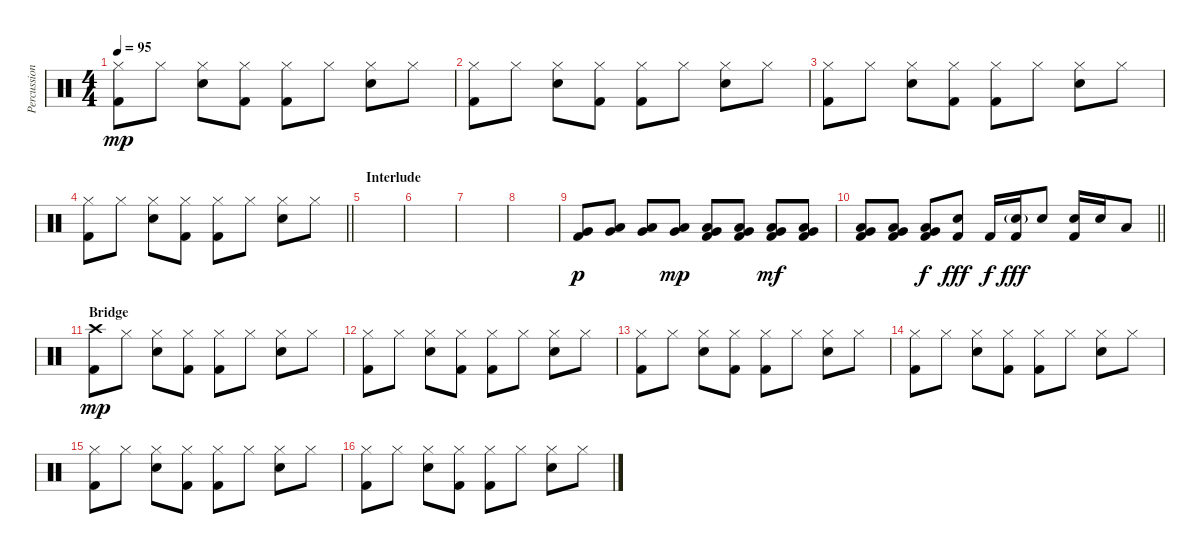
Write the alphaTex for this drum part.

\track ("Percussioni" "Percussion") {instrument percussion}
\staff {score}
\articulation defaults
\ts (4 4)
\tempo 95
\clef neutral
\ks c
("Hi-Hat (closed)" "Kick (hit) 2").8{dy mp} "Hi-Hat (closed)".8 ("Hi-Hat (closed)" "Snare (hit) 2").8 ("Hi-Hat (closed)" "Kick (hit) 2").8 ("Hi-Hat (closed)" "Kick (hit) 2").8 "Hi-Hat (closed)".8 ("Hi-Hat (closed)" "Snare (hit) 2").8 "Hi-Hat (closed)".8 |
("Hi-Hat (closed)" "Kick (hit) 2").8 "Hi-Hat (closed)".8 ("Hi-Hat (closed)" "Snare (hit) 2").8 ("Hi-Hat (closed)" "Kick (hit) 2").8 ("Hi-Hat (closed)" "Kick (hit) 2").8 "Hi-Hat (closed)".8 ("Hi-Hat (closed)" "Snare (hit) 2").8 "Hi-Hat (closed)".8 |
("Hi-Hat (closed)" "Kick (hit) 2").8 "Hi-Hat (closed)".8 ("Hi-Hat (closed)" "Snare (hit) 2").8 ("Hi-Hat (closed)" "Kick (hit) 2").8 ("Hi-Hat (closed)" "Kick (hit) 2").8 "Hi-Hat (closed)".8 ("Hi-Hat (closed)" "Snare (hit) 2").8 "Hi-Hat (closed)".8 |
\barLineRight lightlight
("Hi-Hat (closed)" "Kick (hit) 2").8 "Hi-Hat (closed)".8 ("Hi-Hat (closed)" "Snare (hit) 2").8 ("Hi-Hat (closed)" "Kick (hit) 2").8 ("Hi-Hat (closed)" "Kick (hit) 2").8 "Hi-Hat (closed)".8 ("Hi-Hat (closed)" "Snare (hit) 2").8 "Hi-Hat (closed)".8 |
\section ("" "Interlude")
|
|
|
|
("Very Low Tom (hit)" "Kick (hit) 2").8{dy p} ("Low Tom (hit)" "Very Low Tom (hit)").8 ("Low Tom (hit)" "Very Low Tom (hit)").8 ("Low Tom (hit)" "Very Low Tom (hit)").8{dy mp} ("Low Tom (hit)" "Very Low Tom (hit)" "Kick (hit) 2").8 ("Low Tom (hit)" "Very Low Tom (hit)" "Kick (hit) 2").8 ("Low Tom (hit)" "Very Low Tom (hit)" "Kick (hit) 2").8{dy mf} ("Low Tom (hit)" "Very Low Tom (hit)" "Kick (hit) 2").8 |
\barLineRight lightlight
("Low Tom (hit)" "Very Low Tom (hit)" "Kick (hit) 2").8 ("Low Tom (hit)" "Very Low Tom (hit)" "Kick (hit) 2").8 ("Low Tom (hit)" "Very Low Tom (hit)" "Kick (hit) 2").8{dy f} ("Snare (hit) 2" "Kick (hit) 2").8{dy fff} "Kick (hit) 2".16{dy f} ("Snare (hit) 2"{g} "Kick (hit) 2").16{dy fff} "Snare (hit) 2".8 ("Snare (hit) 2" "Kick (hit) 2").16 "Snare (hit) 2".16 "Low Tom (hit)".8 |
\section ("" "Bridge")
("Crash high (hit)" "Kick (hit) 2").8{dy mp} "Hi-Hat (closed)".8 ("Hi-Hat (closed)" "Snare (hit) 2").8 ("Hi-Hat (closed)" "Kick (hit) 2").8 ("Hi-Hat (closed)" "Kick (hit) 2").8 "Hi-Hat (closed)".8 ("Hi-Hat (closed)" "Snare (hit) 2").8 "Hi-Hat (closed)".8 |
("Hi-Hat (closed)" "Kick (hit) 2").8 "Hi-Hat (closed)".8 ("Hi-Hat (closed)" "Snare (hit) 2").8 ("Hi-Hat (closed)" "Kick (hit) 2").8 ("Hi-Hat (closed)" "Kick (hit) 2").8 "Hi-Hat (closed)".8 ("Hi-Hat (closed)" "Snare (hit) 2").8 "Hi-Hat (closed)".8 |
("Hi-Hat (closed)" "Kick (hit) 2").8 "Hi-Hat (closed)".8 ("Hi-Hat (closed)" "Snare (hit) 2").8 ("Hi-Hat (closed)" "Kick (hit) 2").8 ("Hi-Hat (closed)" "Kick (hit) 2").8 "Hi-Hat (closed)".8 ("Hi-Hat (closed)" "Snare (hit) 2").8 "Hi-Hat (closed)".8 |
("Hi-Hat (closed)" "Kick (hit) 2").8 "Hi-Hat (closed)".8 ("Hi-Hat (closed)" "Snare (hit) 2").8 ("Hi-Hat (closed)" "Kick (hit) 2").8 ("Hi-Hat (closed)" "Kick (hit) 2").8 "Hi-Hat (closed)".8 ("Hi-Hat (closed)" "Snare (hit) 2").8 "Hi-Hat (closed)".8 |
("Hi-Hat (closed)" "Kick (hit) 2").8 "Hi-Hat (closed)".8 ("Hi-Hat (closed)" "Snare (hit) 2").8 ("Hi-Hat (closed)" "Kick (hit) 2").8 ("Hi-Hat (closed)" "Kick (hit) 2").8 "Hi-Hat (closed)".8 ("Hi-Hat (closed)" "Snare (hit) 2").8 "Hi-Hat (closed)".8 |
("Hi-Hat (closed)" "Kick (hit) 2").8 "Hi-Hat (closed)".8 ("Hi-Hat (closed)" "Snare (hit) 2").8 ("Hi-Hat (closed)" "Kick (hit) 2").8 ("Hi-Hat (closed)" "Kick (hit) 2").8 "Hi-Hat (closed)".8 ("Hi-Hat (closed)" "Snare (hit) 2").8 "Hi-Hat (closed)".8
